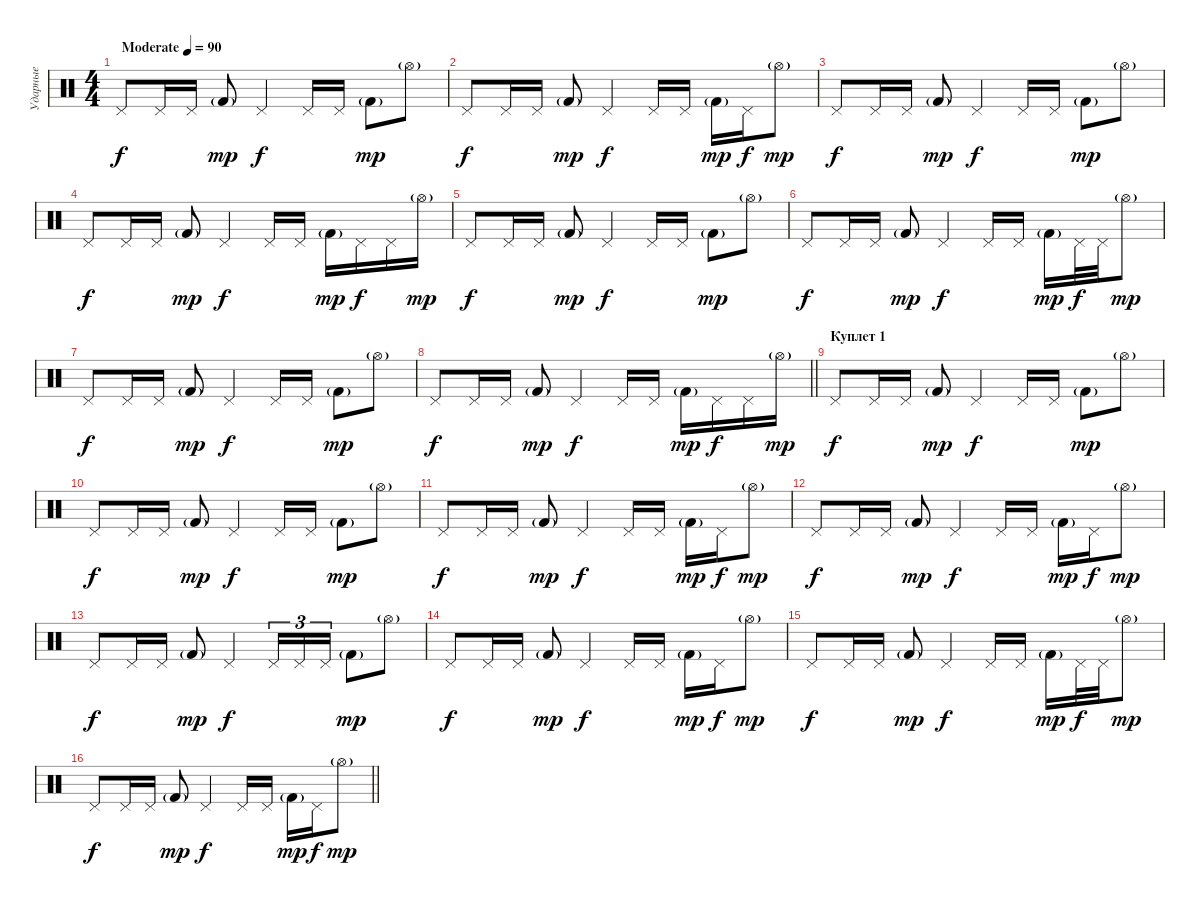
\track ("Ударные" "Ударные") {instrument percussion}
\staff {score}
\articulation defaults
\ts (4 4)
\tempo (90 "Moderate")
\clef neutral
\ks c "Pedal Hi-Hat (hit)".8{dy f} "Pedal Hi-Hat (hit)".16 "Pedal Hi-Hat (hit)".16 "Kick (hit) 2"{g}.8{dy mp} "Pedal Hi-Hat (hit)".4{dy f} "Pedal Hi-Hat (hit)".16 "Pedal Hi-Hat (hit)".16 "Kick (hit) 2"{g}.8{dy mp} "Hi-Hat (open)"{g}.8
|
"Pedal Hi-Hat (hit)".8{dy f} "Pedal Hi-Hat (hit)".16 "Pedal Hi-Hat (hit)".16 "Kick (hit) 2"{g}.8{dy mp} "Pedal Hi-Hat (hit)".4{dy f} "Pedal Hi-Hat (hit)".16 "Pedal Hi-Hat (hit)".16 "Kick (hit) 2"{g}.16{dy mp} "Pedal Hi-Hat (hit)".16{dy f} "Hi-Hat (open)"{g}.8{dy mp} |
"Pedal Hi-Hat (hit)".8{dy f} "Pedal Hi-Hat (hit)".16 "Pedal Hi-Hat (hit)".16 "Kick (hit) 2"{g}.8{dy mp} "Pedal Hi-Hat (hit)".4{dy f} "Pedal Hi-Hat (hit)".16 "Pedal Hi-Hat (hit)".16 "Kick (hit) 2"{g}.8{dy mp} "Hi-Hat (open)"{g}.8 |
"Pedal Hi-Hat (hit)".8{dy f} "Pedal Hi-Hat (hit)".16 "Pedal Hi-Hat (hit)".16 "Kick (hit) 2"{g}.8{dy mp} "Pedal Hi-Hat (hit)".4{dy f} "Pedal Hi-Hat (hit)".16 "Pedal Hi-Hat (hit)".16 "Kick (hit) 2"{g}.16{dy mp} "Pedal Hi-Hat (hit)".16{dy f} "Pedal Hi-Hat (hit)".16 "Hi-Hat (open)"{g}.16{dy mp} |
"Pedal Hi-Hat (hit)".8{dy f} "Pedal Hi-Hat (hit)".16 "Pedal Hi-Hat (hit)".16 "Kick (hit) 2"{g}.8{dy mp} "Pedal Hi-Hat (hit)".4{dy f} "Pedal Hi-Hat (hit)".16 "Pedal Hi-Hat (hit)".16 "Kick (hit) 2"{g}.8{dy mp} "Hi-Hat (open)"{g}.8 |
"Pedal Hi-Hat (hit)".8{dy f} "Pedal Hi-Hat (hit)".16 "Pedal Hi-Hat (hit)".16 "Kick (hit) 2"{g}.8{dy mp} "Pedal Hi-Hat (hit)".4{dy f} "Pedal Hi-Hat (hit)".16 "Pedal Hi-Hat (hit)".16 "Kick (hit) 2"{g}.16{dy mp} "Pedal Hi-Hat (hit)".32{dy f} "Pedal Hi-Hat (hit)".32 "Hi-Hat (open)"{g}.8{dy mp} |
"Pedal Hi-Hat (hit)".8{dy f} "Pedal Hi-Hat (hit)".16 "Pedal Hi-Hat (hit)".16 "Kick (hit) 2"{g}.8{dy mp} "Pedal Hi-Hat (hit)".4{dy f} "Pedal Hi-Hat (hit)".16 "Pedal Hi-Hat (hit)".16 "Kick (hit) 2"{g}.8{dy mp} "Hi-Hat (open)"{g}.8 |
\barLineRight lightlight "Pedal Hi-Hat (hit)".8{dy f} "Pedal Hi-Hat (hit)".16 "Pedal Hi-Hat (hit)".16 "Kick (hit) 2"{g}.8{dy mp} "Pedal Hi-Hat (hit)".4{dy f} "Pedal Hi-Hat (hit)".16 "Pedal Hi-Hat (hit)".16 "Kick (hit) 2"{g}.16{dy mp} "Pedal Hi-Hat (hit)".16{dy f} "Pedal Hi-Hat (hit)".16 "Hi-Hat (open)"{g}.16{dy mp}
|
\section ("" "Куплет 1")
"Pedal Hi-Hat (hit)".8{dy f} "Pedal Hi-Hat (hit)".16 "Pedal Hi-Hat (hit)".16 "Kick (hit) 2"{g}.8{dy mp} "Pedal Hi-Hat (hit)".4{dy f} "Pedal Hi-Hat (hit)".16 "Pedal Hi-Hat (hit)".16 "Kick (hit) 2"{g}.8{dy mp} "Hi-Hat (open)"{g}.8 |
"Pedal Hi-Hat (hit)".8{dy f} "Pedal Hi-Hat (hit)".16 "Pedal Hi-Hat (hit)".16 "Kick (hit) 2"{g}.8{dy mp} "Pedal Hi-Hat (hit)".4{dy f} "Pedal Hi-Hat (hit)".16 "Pedal Hi-Hat (hit)".16 "Kick (hit) 2"{g}.8{dy mp} "Hi-Hat (open)"{g}.8 |
"Pedal Hi-Hat (hit)".8{dy f} "Pedal Hi-Hat (hit)".16 "Pedal Hi-Hat (hit)".16 "Kick (hit) 2"{g}.8{dy mp} "Pedal Hi-Hat (hit)".4{dy f} "Pedal Hi-Hat (hit)".16 "Pedal Hi-Hat (hit)".16 "Kick (hit) 2"{g}.16{dy mp} "Pedal Hi-Hat (hit)".16{dy f} "Hi-Hat (open)"{g}.8{dy mp} |
"Pedal Hi-Hat (hit)".8{dy f} "Pedal Hi-Hat (hit)".16 "Pedal Hi-Hat (hit)".16 "Kick (hit) 2"{g}.8{dy mp} "Pedal Hi-Hat (hit)".4{dy f} "Pedal Hi-Hat (hit)".16 "Pedal Hi-Hat (hit)".16 "Kick (hit) 2"{g}.16{dy mp} "Pedal Hi-Hat (hit)".16{dy f} "Hi-Hat (open)"{g}.8{dy mp} |
"Pedal Hi-Hat (hit)".8{dy f} "Pedal Hi-Hat (hit)".16 "Pedal Hi-Hat (hit)".16 "Kick (hit) 2"{g}.8{dy mp} "Pedal Hi-Hat (hit)".4{dy f} "Pedal Hi-Hat (hit)".16{tu (3 2)} "Pedal Hi-Hat (hit)".16{tu (3 2)} "Pedal Hi-Hat (hit)".16{tu (3 2)} "Kick (hit) 2"{g}.8{dy mp} "Hi-Hat (open)"{g}.8 |
"Pedal Hi-Hat (hit)".8{dy f} "Pedal Hi-Hat (hit)".16 "Pedal Hi-Hat (hit)".16 "Kick (hit) 2"{g}.8{dy mp} "Pedal Hi-Hat (hit)".4{dy f} "Pedal Hi-Hat (hit)".16 "Pedal Hi-Hat (hit)".16 "Kick (hit) 2"{g}.16{dy mp} "Pedal Hi-Hat (hit)".16{dy f} "Hi-Hat (open)"{g}.8{dy mp} |
"Pedal Hi-Hat (hit)".8{dy f} "Pedal Hi-Hat (hit)".16 "Pedal Hi-Hat (hit)".16 "Kick (hit) 2"{g}.8{dy mp} "Pedal Hi-Hat (hit)".4{dy f} "Pedal Hi-Hat (hit)".16 "Pedal Hi-Hat (hit)".16 "Kick (hit) 2"{g}.16{dy mp} "Pedal Hi-Hat (hit)".32{dy f} "Pedal Hi-Hat (hit)".32 "Hi-Hat (open)"{g}.8{dy mp} |
\barLineRight lightlight "Pedal Hi-Hat (hit)".8{dy f} "Pedal Hi-Hat (hit)".16 "Pedal Hi-Hat (hit)".16 "Kick (hit) 2"{g}.8{dy mp} "Pedal Hi-Hat (hit)".4{dy f} "Pedal Hi-Hat (hit)".16 "Pedal Hi-Hat (hit)".16 "Kick (hit) 2"{g}.16{dy mp} "Pedal Hi-Hat (hit)".16{dy f} "Hi-Hat (open)"{g}.8{dy mp}
